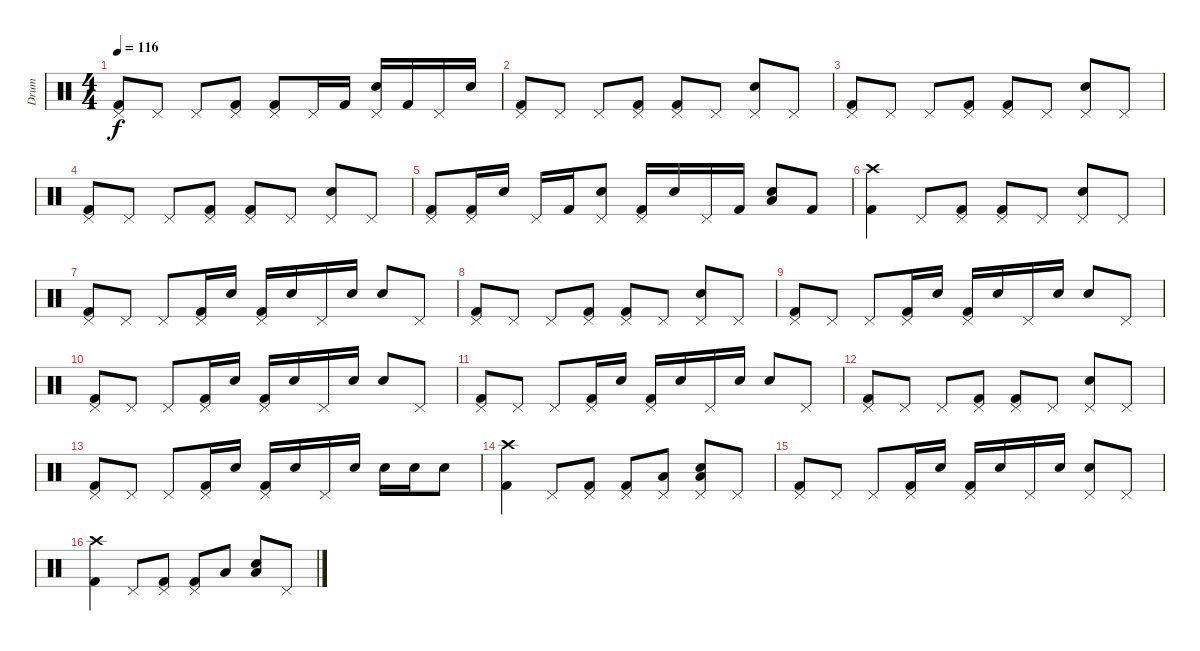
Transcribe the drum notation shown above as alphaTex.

\track ("Drum" "Drum") {instrument percussion}
\staff {score}
\articulation defaults
\ts (4 4)
\tempo 116
\clef neutral
\ks c
("Pedal Hi-Hat (hit)" "Kick (hit) 2").8{dy f} "Pedal Hi-Hat (hit)".8 "Pedal Hi-Hat (hit)".8 ("Pedal Hi-Hat (hit)" "Kick (hit) 2").8 ("Pedal Hi-Hat (hit)" "Kick (hit) 2").8 "Pedal Hi-Hat (hit)".16 "Kick (hit) 2".16 ("Pedal Hi-Hat (hit)" "Electric Snare (hit)").16 "Kick (hit) 2".16 "Pedal Hi-Hat (hit)".16 "Electric Snare (hit)".16 |
("Pedal Hi-Hat (hit)" "Kick (hit) 2").8 "Pedal Hi-Hat (hit)".8 "Pedal Hi-Hat (hit)".8 ("Pedal Hi-Hat (hit)" "Kick (hit) 2").8 ("Pedal Hi-Hat (hit)" "Kick (hit) 2").8 "Pedal Hi-Hat (hit)".8 ("Pedal Hi-Hat (hit)" "Electric Snare (hit)").8 "Pedal Hi-Hat (hit)".8 |
("Pedal Hi-Hat (hit)" "Kick (hit) 2").8 "Pedal Hi-Hat (hit)".8 "Pedal Hi-Hat (hit)".8 ("Pedal Hi-Hat (hit)" "Kick (hit) 2").8 ("Pedal Hi-Hat (hit)" "Kick (hit) 2").8 "Pedal Hi-Hat (hit)".8 ("Pedal Hi-Hat (hit)" "Electric Snare (hit)").8 "Pedal Hi-Hat (hit)".8 |
("Pedal Hi-Hat (hit)" "Kick (hit) 2").8 "Pedal Hi-Hat (hit)".8 "Pedal Hi-Hat (hit)".8 ("Pedal Hi-Hat (hit)" "Kick (hit) 2").8 ("Pedal Hi-Hat (hit)" "Kick (hit) 2").8 "Pedal Hi-Hat (hit)".8 ("Pedal Hi-Hat (hit)" "Electric Snare (hit)").8 "Pedal Hi-Hat (hit)".8 |
("Pedal Hi-Hat (hit)" "Kick (hit) 2").8 ("Pedal Hi-Hat (hit)" "Kick (hit) 2").16 "Electric Snare (hit)".16 "Pedal Hi-Hat (hit)".16 "Kick (hit) 2".16 ("Pedal Hi-Hat (hit)" "Electric Snare (hit)").8 ("Pedal Hi-Hat (hit)" "Kick (hit) 2").16 "Electric Snare (hit)".16 "Pedal Hi-Hat (hit)".16 "Kick (hit) 2".16 ("Low Tom (hit)" "Electric Snare (hit)").8 "Kick (hit) 2".8 |
("Crash high (hit)" "Kick (hit) 2").4 "Pedal Hi-Hat (hit)".8 ("Pedal Hi-Hat (hit)" "Kick (hit) 2").8 ("Pedal Hi-Hat (hit)" "Kick (hit) 2").8 "Pedal Hi-Hat (hit)".8 ("Pedal Hi-Hat (hit)" "Electric Snare (hit)").8 "Pedal Hi-Hat (hit)".8 |
("Pedal Hi-Hat (hit)" "Kick (hit) 2").8 "Pedal Hi-Hat (hit)".8 "Pedal Hi-Hat (hit)".8 ("Pedal Hi-Hat (hit)" "Kick (hit) 2").16 "Electric Snare (hit)".16 ("Pedal Hi-Hat (hit)" "Kick (hit) 2").16 "Electric Snare (hit)".16 "Pedal Hi-Hat (hit)".16 "Electric Snare (hit)".16 "Electric Snare (hit)".8 "Pedal Hi-Hat (hit)".8 |
("Pedal Hi-Hat (hit)" "Kick (hit) 2").8 "Pedal Hi-Hat (hit)".8 "Pedal Hi-Hat (hit)".8 ("Pedal Hi-Hat (hit)" "Kick (hit) 2").8 ("Pedal Hi-Hat (hit)" "Kick (hit) 2").8 "Pedal Hi-Hat (hit)".8 ("Pedal Hi-Hat (hit)" "Electric Snare (hit)").8 "Pedal Hi-Hat (hit)".8 |
("Pedal Hi-Hat (hit)" "Kick (hit) 2").8 "Pedal Hi-Hat (hit)".8 "Pedal Hi-Hat (hit)".8 ("Pedal Hi-Hat (hit)" "Kick (hit) 2").16 "Electric Snare (hit)".16 ("Pedal Hi-Hat (hit)" "Kick (hit) 2").16 "Electric Snare (hit)".16 "Pedal Hi-Hat (hit)".16 "Electric Snare (hit)".16 "Electric Snare (hit)".8 "Pedal Hi-Hat (hit)".8 |
("Pedal Hi-Hat (hit)" "Kick (hit) 2").8 "Pedal Hi-Hat (hit)".8 "Pedal Hi-Hat (hit)".8 ("Pedal Hi-Hat (hit)" "Kick (hit) 2").16 "Electric Snare (hit)".16 ("Pedal Hi-Hat (hit)" "Kick (hit) 2").16 "Electric Snare (hit)".16 "Pedal Hi-Hat (hit)".16 "Electric Snare (hit)".16 "Electric Snare (hit)".8 "Pedal Hi-Hat (hit)".8 |
("Pedal Hi-Hat (hit)" "Kick (hit) 2").8 "Pedal Hi-Hat (hit)".8 "Pedal Hi-Hat (hit)".8 ("Pedal Hi-Hat (hit)" "Kick (hit) 2").16 "Electric Snare (hit)".16 ("Pedal Hi-Hat (hit)" "Kick (hit) 2").16 "Electric Snare (hit)".16 "Pedal Hi-Hat (hit)".16 "Electric Snare (hit)".16 "Electric Snare (hit)".8 "Pedal Hi-Hat (hit)".8 |
("Pedal Hi-Hat (hit)" "Kick (hit) 2").8 "Pedal Hi-Hat (hit)".8 "Pedal Hi-Hat (hit)".8 ("Pedal Hi-Hat (hit)" "Kick (hit) 2").8 ("Pedal Hi-Hat (hit)" "Kick (hit) 2").8 "Pedal Hi-Hat (hit)".8 ("Pedal Hi-Hat (hit)" "Electric Snare (hit)").8 "Pedal Hi-Hat (hit)".8 |
("Pedal Hi-Hat (hit)" "Kick (hit) 2").8 "Pedal Hi-Hat (hit)".8 "Pedal Hi-Hat (hit)".8 ("Pedal Hi-Hat (hit)" "Kick (hit) 2").16 "Electric Snare (hit)".16 ("Pedal Hi-Hat (hit)" "Kick (hit) 2").16 "Electric Snare (hit)".16 "Pedal Hi-Hat (hit)".16 "Electric Snare (hit)".16 "Electric Snare (hit)".16 "Electric Snare (hit)".16 "Electric Snare (hit)".8 |
("Crash high (hit)" "Kick (hit) 2").4 "Pedal Hi-Hat (hit)".8 ("Pedal Hi-Hat (hit)" "Kick (hit) 2").8 ("Pedal Hi-Hat (hit)" "Kick (hit) 2").8 ("Pedal Hi-Hat (hit)" "Low Tom (hit)").8 ("Pedal Hi-Hat (hit)" "Electric Snare (hit)" "Low Floor Tom (hit)").8 "Pedal Hi-Hat (hit)".8 |
("Pedal Hi-Hat (hit)" "Kick (hit) 2").8 "Pedal Hi-Hat (hit)".8 "Pedal Hi-Hat (hit)".8 ("Pedal Hi-Hat (hit)" "Kick (hit) 2").16 "Electric Snare (hit)".16 ("Pedal Hi-Hat (hit)" "Kick (hit) 2").16 "Electric Snare (hit)".16 "Pedal Hi-Hat (hit)".16 "Electric Snare (hit)".16 ("Pedal Hi-Hat (hit)" "Electric Snare (hit)").8 "Pedal Hi-Hat (hit)".8 |
("Crash high (hit)" "Kick (hit) 2").4 "Pedal Hi-Hat (hit)".8 ("Pedal Hi-Hat (hit)" "Kick (hit) 2").8 ("Pedal Hi-Hat (hit)" "Kick (hit) 2").8 "Low Tom (hit)".8 ("Electric Snare (hit)" "Low Floor Tom (hit)").8 "Pedal Hi-Hat (hit)".8
